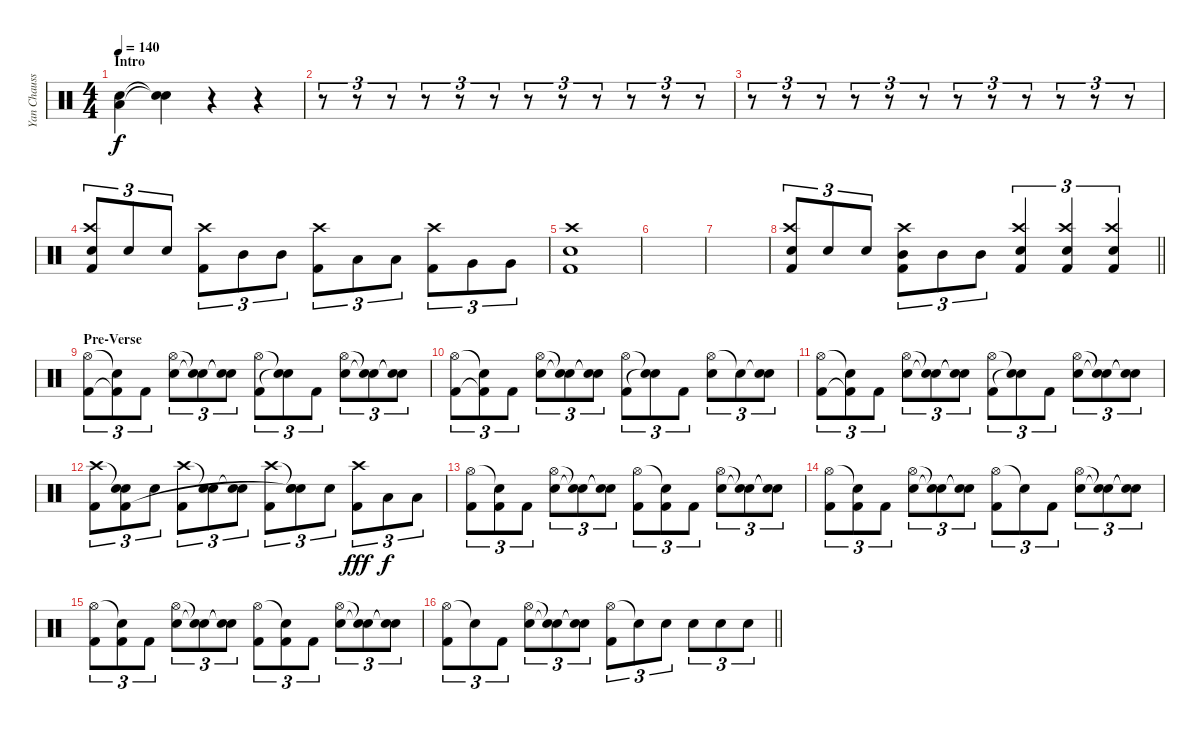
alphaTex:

\track ("Yan Chausse" "Yan Chauss") {instrument percussion}
\staff {score}
\articulation defaults
\ts (4 4)
\section ("" "Intro")
\tempo 140
\clef neutral
\ks c
("Snare (hit) 2" "Low Floor Tom (hit)").4{dy f} ("Snare (hit)"{t} "Snare (hit)"{t}).4 r.4 r.4 |
r.8{tu (3 2)} r.8{tu (3 2)} r.8{tu (3 2)} r.8{tu (3 2)} r.8{tu (3 2)} r.8{tu (3 2)} r.8{tu (3 2)} r.8{tu (3 2)} r.8{tu (3 2)} r.8{tu (3 2)} r.8{tu (3 2)} r.8{tu (3 2)} |
r.8{tu (3 2)} r.8{tu (3 2)} r.8{tu (3 2)} r.8{tu (3 2)} r.8{tu (3 2)} r.8{tu (3 2)} r.8{tu (3 2)} r.8{tu (3 2)} r.8{tu (3 2)} r.8{tu (3 2)} r.8{tu (3 2)} r.8{tu (3 2)} |
("Crash high (hit)" "Snare (hit) 2" "Kick (hit) 2").8{tu (3 2)} "Snare (hit) 2".8{tu (3 2)} "Snare (hit) 2".8{tu (3 2)} ("Crash high (hit)" "Kick (hit) 2").8{tu (3 2)} "Mid Tom (hit)".8{tu (3 2)} "Mid Tom (hit)".8{tu (3 2)} ("Crash high (hit)" "Kick (hit) 2").8{tu (3 2)} "Low Tom (hit)".8{tu (3 2)} "Low Tom (hit)".8{tu (3 2)} ("Crash high (hit)" "Kick (hit) 2").8{tu (3 2)} "Very Low Tom (hit)".8{tu (3 2)} "Very Low Tom (hit)".8{tu (3 2)} |
("Crash high (hit)" "Snare (hit) 2" "Kick (hit) 2").1 |
|
|
\barLineRight lightlight
("Crash high (hit)" "Snare (hit) 2" "Kick (hit) 2").8{tu (3 2)} "Snare (hit) 2".8{tu (3 2)} "Snare (hit) 2".8{tu (3 2)} ("Crash high (hit)" "Mid Tom (hit)" "Kick (hit) 2").8{tu (3 2)} "Mid Tom (hit)".8{tu (3 2)} "Mid Tom (hit)".8{tu (3 2)} ("Crash high (hit)" "Snare (hit) 2" "Kick (hit) 2").4{tu (3 2)} ("Crash high (hit)" "Snare (hit) 2" "Kick (hit) 2").4{tu (3 2)} ("Crash high (hit)" "Snare (hit) 2" "Kick (hit) 2").4{tu (3 2)} |
\section ("" "Pre-Verse")
("Hi-Hat (open)" "Kick (hit) 2").8{tu (3 2)} ("Snare (hit)"{t} "Kick (hit) 2"{t}).8{tu (3 2)} "Kick (hit) 2".8{tu (3 2)} ("Hi-Hat (open)" "Snare (hit) 2").8{tu (3 2)} ("Snare (hit)"{t} "Snare (hit)"{t}).8{tu (3 2)} ("Snare (hit)"{t} "Snare (hit)"{t}).8{tu (3 2)} ("Hi-Hat (open)" "Kick (hit) 2").8{tu (3 2)} ("Snare (hit)"{t} "Snare (hit)"{t}).8{tu (3 2)} "Kick (hit) 2".8{tu (3 2)} ("Hi-Hat (open)" "Snare (hit) 2").8{tu (3 2)} ("Snare (hit)"{t} "Snare (hit)"{t}).8{tu (3 2)} ("Snare (hit)"{t} "Snare (hit)"{t}).8{tu (3 2)} |
("Hi-Hat (open)" "Kick (hit) 2").8{tu (3 2)} ("Snare (hit)"{t} "Kick (hit) 2"{t}).8{tu (3 2)} "Kick (hit) 2".8{tu (3 2)} ("Hi-Hat (open)" "Snare (hit) 2").8{tu (3 2)} ("Snare (hit)"{t} "Snare (hit)"{t}).8{tu (3 2)} ("Snare (hit)"{t} "Snare (hit)"{t}).8{tu (3 2)} ("Hi-Hat (open)" "Kick (hit) 2").8{tu (3 2)} ("Snare (hit)"{t} "Snare (hit)"{t}).8{tu (3 2)} "Kick (hit) 2".8{tu (3 2)} ("Hi-Hat (open)" "Snare (hit) 2").8{tu (3 2)} "Snare (hit)"{t}.8{tu (3 2)} ("Snare (hit)"{t} "Snare (hit) 2").8{tu (3 2)} |
("Hi-Hat (open)" "Kick (hit) 2").8{tu (3 2)} ("Snare (hit)"{t} "Kick (hit) 2"{t}).8{tu (3 2)} "Kick (hit) 2".8{tu (3 2)} ("Hi-Hat (open)" "Snare (hit) 2").8{tu (3 2)} ("Snare (hit)"{t} "Snare (hit)"{t}).8{tu (3 2)} ("Snare (hit)"{t} "Snare (hit)"{t}).8{tu (3 2)} ("Hi-Hat (open)" "Kick (hit) 2").8{tu (3 2)} ("Snare (hit)"{t} "Snare (hit)"{t}).8{tu (3 2)} "Kick (hit) 2".8{tu (3 2)} ("Hi-Hat (open)" "Snare (hit) 2").8{tu (3 2)} ("Snare (hit)"{t} "Snare (hit)"{t}).8{tu (3 2)} ("Snare (hit)"{t} "Snare (hit)"{t}).8{tu (3 2)} |
("Crash high (hit)" "Kick (hit) 2").8{tu (3 2)} ("Snare (hit)"{t} "Snare (hit) 2" "Kick (hit) 2").8{tu (3 2)} "Snare (hit) 2".8{tu (3 2)} ("Crash high (hit)" "Kick (hit) 2").8{tu (3 2)} ("Snare (hit)"{t} "Snare (hit) 2").8{tu (3 2)} ("Snare (hit)"{t} "Snare (hit) 2").8{tu (3 2)} ("Crash high (hit)" "Kick (hit) 2").8{tu (3 2)} ("Snare (hit)"{t} "Snare (hit) 2" "Snare (hit)"{t}).8{tu (3 2)} "Snare (hit) 2".8{tu (3 2)} ("Crash high (hit)" "Kick (hit) 2").8{tu (3 2) dy fff} "Low Tom (hit)".8{tu (3 2) dy f} "Low Tom (hit)".8{tu (3 2)} |
("Hi-Hat (open)" "Kick (hit) 2").8{tu (3 2)} ("Snare (hit)"{t} "Kick (hit) 2").8{tu (3 2)} "Kick (hit) 2".8{tu (3 2)} ("Hi-Hat (open)" "Snare (hit) 2").8{tu (3 2)} ("Snare (hit)"{t} "Snare (hit)"{t}).8{tu (3 2)} ("Snare (hit)"{t} "Snare (hit)"{t}).8{tu (3 2)} ("Hi-Hat (open)" "Kick (hit) 2").8{tu (3 2)} ("Snare (hit)"{t} "Kick (hit) 2").8{tu (3 2)} "Kick (hit) 2".8{tu (3 2)} ("Hi-Hat (open)" "Snare (hit) 2").8{tu (3 2)} ("Snare (hit)"{t} "Snare (hit)"{t}).8{tu (3 2)} ("Snare (hit)"{t} "Snare (hit)"{t}).8{tu (3 2)} |
("Hi-Hat (open)" "Kick (hit) 2").8{tu (3 2)} ("Snare (hit)"{t} "Kick (hit) 2").8{tu (3 2)} "Kick (hit) 2".8{tu (3 2)} ("Hi-Hat (open)" "Snare (hit) 2").8{tu (3 2)} ("Snare (hit)"{t} "Snare (hit)"{t}).8{tu (3 2)} ("Snare (hit)"{t} "Snare (hit)"{t}).8{tu (3 2)} ("Hi-Hat (open)" "Kick (hit) 2").8{tu (3 2)} "Snare (hit)"{t}.8{tu (3 2)} "Kick (hit) 2".8{tu (3 2)} ("Hi-Hat (open)" "Snare (hit) 2").8{tu (3 2)} ("Snare (hit)"{t} "Snare (hit)"{t}).8{tu (3 2)} ("Snare (hit)"{t} "Snare (hit)"{t}).8{tu (3 2)} |
("Hi-Hat (open)" "Kick (hit) 2").8{tu (3 2)} ("Snare (hit)"{t} "Kick (hit) 2").8{tu (3 2)} "Kick (hit) 2".8{tu (3 2)} ("Hi-Hat (open)" "Snare (hit) 2").8{tu (3 2)} ("Snare (hit)"{t} "Snare (hit)"{t}).8{tu (3 2)} ("Snare (hit)"{t} "Snare (hit)"{t}).8{tu (3 2)} ("Hi-Hat (open)" "Kick (hit) 2").8{tu (3 2)} ("Snare (hit)"{t} "Kick (hit) 2").8{tu (3 2)} "Kick (hit) 2".8{tu (3 2)} ("Hi-Hat (open)" "Snare (hit) 2").8{tu (3 2)} ("Snare (hit)"{t} "Snare (hit)"{t}).8{tu (3 2)} ("Snare (hit)"{t} "Snare (hit)"{t}).8{tu (3 2)} |
\barLineRight lightlight
("Hi-Hat (open)" "Kick (hit) 2").8{tu (3 2)} "Snare (hit)"{t}.8{tu (3 2)} "Kick (hit) 2".8{tu (3 2)} ("Hi-Hat (open)" "Snare (hit) 2").8{tu (3 2)} ("Snare (hit)"{t} "Snare (hit)"{t}).8{tu (3 2)} ("Snare (hit)"{t} "Snare (hit)"{t}).8{tu (3 2)} ("Hi-Hat (open)" "Kick (hit) 2").8{tu (3 2)} "Snare (hit)"{t}.8{tu (3 2)} "Snare (hit) 2".8{tu (3 2)} "Snare (hit) 2".8{tu (3 2)} "Snare (hit) 2".8{tu (3 2)} "Snare (hit) 2".8{tu (3 2)}
